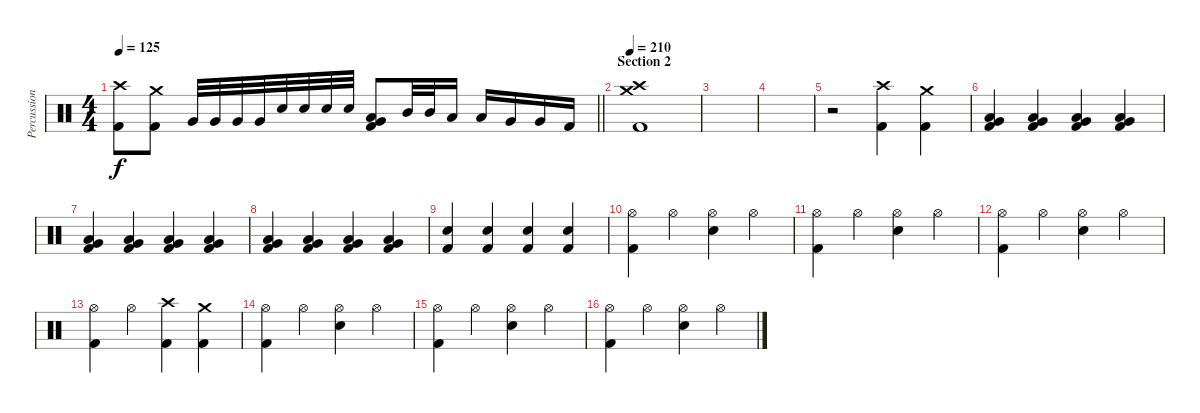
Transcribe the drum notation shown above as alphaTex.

\track ("Percussions" "Percussion") {instrument percussion}
\staff {score}
\articulation defaults
\ts (4 4)
\tempo 125
\clef neutral
\barLineRight lightlight
\ks c
("Kick (hit) 2" "Crash high (hit)").8{dy f} ("Kick (hit) 2" "Crash medium (hit)").8 "Very Low Tom (hit)".32 "Very Low Tom (hit)".32 "Very Low Tom (hit)".32 "Very Low Tom (hit)".32 "Electric Snare (hit)".32 "Electric Snare (hit)".32 "Electric Snare (hit)".32 "Electric Snare (hit)".32 ("Kick (hit) 2" "Very Low Tom (hit)" "Low Tom (hit)").8 "Mid Tom (hit)".32 "Mid Tom (hit)".32 "Low Tom (hit)".16 "Low Tom (hit)".16 "Very Low Tom (hit)".16 "Very Low Tom (hit)".16 "Kick (hit) 2".16 |
\section ("" "Section 2")
\tempo 210
("Kick (hit) 2" "Crash high (hit)" "Crash medium (hit)").1 |
|
|
r.2 ("Kick (hit) 2" "Crash high (hit)").4 ("Kick (hit) 2" "Crash medium (hit)").4 |
("Kick (hit) 2" "Very Low Tom (hit)" "Low Tom (hit)").4 ("Kick (hit) 2" "Very Low Tom (hit)" "Low Tom (hit)").4 ("Kick (hit) 2" "Very Low Tom (hit)" "Low Tom (hit)").4 ("Kick (hit) 2" "Very Low Tom (hit)" "Low Tom (hit)").4 |
("Kick (hit) 2" "Very Low Tom (hit)" "Low Tom (hit)").4 ("Kick (hit) 2" "Very Low Tom (hit)" "Low Tom (hit)").4 ("Kick (hit) 2" "Very Low Tom (hit)" "Low Tom (hit)").4 ("Kick (hit) 2" "Very Low Tom (hit)" "Low Tom (hit)").4 |
("Kick (hit) 2" "Very Low Tom (hit)" "Low Tom (hit)").4 ("Kick (hit) 2" "Very Low Tom (hit)" "Low Tom (hit)").4 ("Kick (hit) 2" "Very Low Tom (hit)" "Low Tom (hit)").4 ("Kick (hit) 2" "Very Low Tom (hit)" "Low Tom (hit)").4 |
("Kick (hit) 2" "Electric Snare (hit)").4 ("Kick (hit) 2" "Electric Snare (hit)").4 ("Kick (hit) 2" "Electric Snare (hit)").4 ("Kick (hit) 2" "Electric Snare (hit)").4 |
("Kick (hit) 2" "Hi-Hat (open)").4 "Hi-Hat (open)".4 ("Electric Snare (hit)" "Hi-Hat (open)").4 "Hi-Hat (open)".4 |
("Kick (hit) 2" "Hi-Hat (open)").4 "Hi-Hat (open)".4 ("Electric Snare (hit)" "Hi-Hat (open)").4 "Hi-Hat (open)".4 |
("Kick (hit) 2" "Hi-Hat (open)").4 "Hi-Hat (open)".4 ("Electric Snare (hit)" "Hi-Hat (open)").4 "Hi-Hat (open)".4 |
("Kick (hit) 2" "Hi-Hat (open)").4 "Hi-Hat (open)".4 ("Kick (hit) 2" "Crash high (hit)").4 ("Kick (hit) 2" "Crash medium (hit)").4 |
("Kick (hit) 2" "Hi-Hat (open)").4 "Hi-Hat (open)".4 ("Electric Snare (hit)" "Hi-Hat (open)").4 "Hi-Hat (open)".4 |
("Kick (hit) 2" "Hi-Hat (open)").4 "Hi-Hat (open)".4 ("Electric Snare (hit)" "Hi-Hat (open)").4 "Hi-Hat (open)".4 |
("Kick (hit) 2" "Hi-Hat (open)").4 "Hi-Hat (open)".4 ("Electric Snare (hit)" "Hi-Hat (open)").4 "Hi-Hat (open)".4
